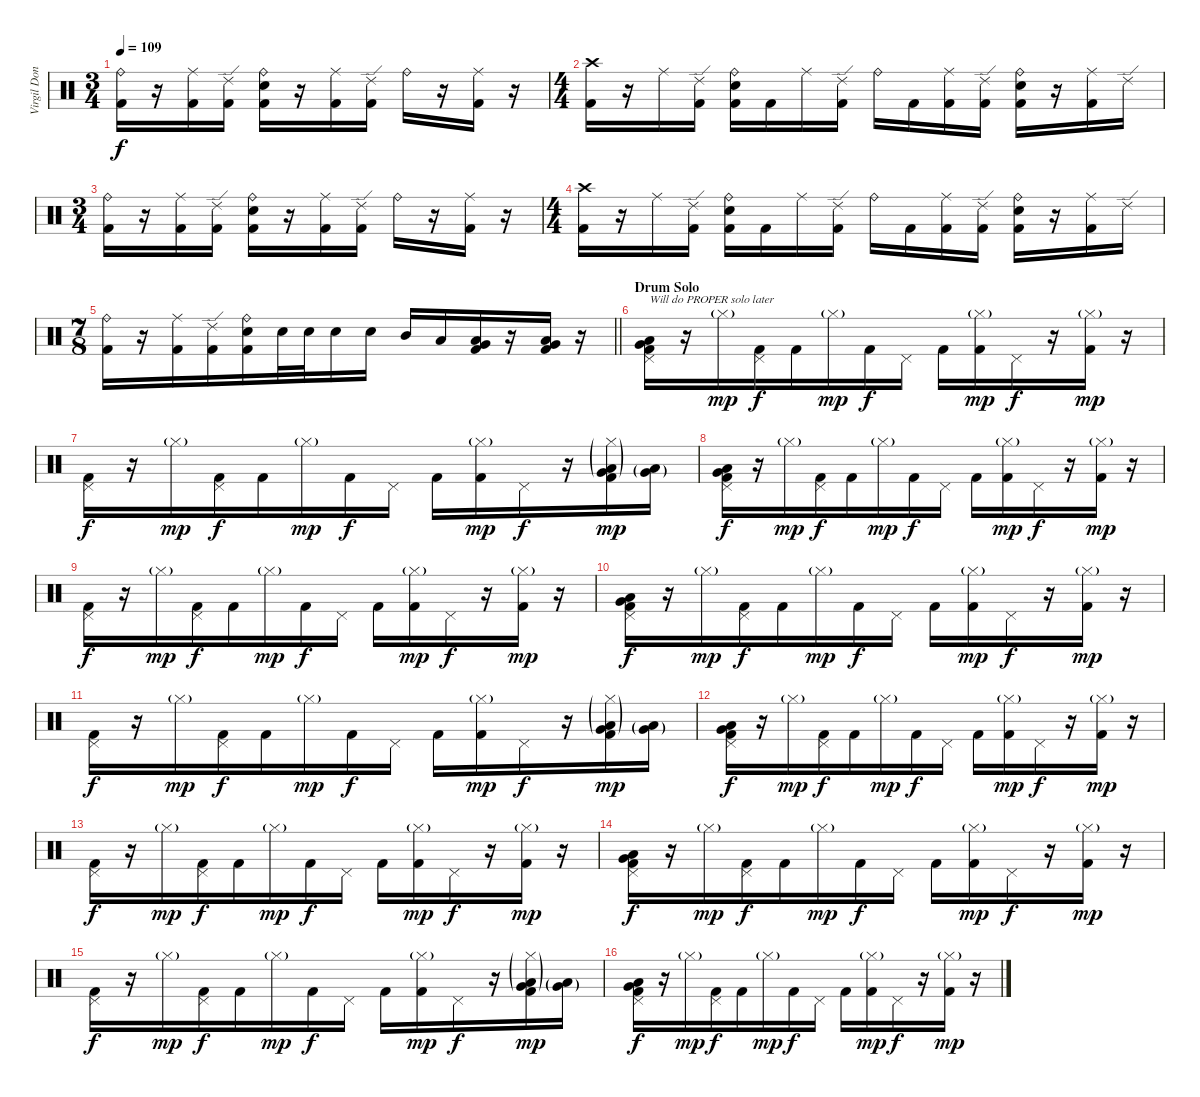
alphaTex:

\track ("Virgil Donati" "Virgil Don") {instrument percussion}
\staff {score}
\articulation defaults
\ts (3 4)
\tempo 109
\clef neutral
\ks c
("Ride (bell)" "Kick (hit) 2").16{dy f} r.16 ("Ride (middle)" "Kick (hit) 2").16 ("Ride (edge) 2" "Kick (hit) 2").16 ("Ride (bell)" "Electric Snare (hit)" "Kick (hit) 2").16 r.16 ("Ride (middle)" "Kick (hit) 2").16 ("Ride (edge) 2" "Kick (hit) 2").16 "Ride (bell)".16 r.16 ("Ride (middle)" "Kick (hit) 2").16 r.16 |
\ts (4 4)
("Crash high (hit)" "Kick (hit) 2").16 r.16 "Ride (middle)".16 ("Ride (edge) 2" "Kick (hit) 2").16 ("Ride (bell)" "Electric Snare (hit)" "Kick (hit) 2").16 "Kick (hit) 2".16 "Ride (middle)".16 ("Ride (edge) 2" "Kick (hit) 2").16 "Ride (bell)".16 "Kick (hit) 2".16 ("Ride (middle)" "Kick (hit) 2").16 ("Ride (edge) 2" "Kick (hit) 2").16 ("Ride (bell)" "Electric Snare (hit)" "Kick (hit) 2").16 r.16 ("Ride (middle)" "Kick (hit) 2").16 "Ride (edge) 2".16 |
\ts (3 4)
("Ride (bell)" "Kick (hit) 2").16 r.16 ("Ride (middle)" "Kick (hit) 2").16 ("Ride (edge) 2" "Kick (hit) 2").16 ("Ride (bell)" "Electric Snare (hit)" "Kick (hit) 2").16 r.16 ("Ride (middle)" "Kick (hit) 2").16 ("Ride (edge) 2" "Kick (hit) 2").16 "Ride (bell)".16 r.16 ("Ride (middle)" "Kick (hit) 2").16 r.16 |
\ts (4 4)
("Crash high (hit)" "Kick (hit) 2").16 r.16 "Ride (middle)".16 ("Ride (edge) 2" "Kick (hit) 2").16 ("Ride (bell)" "Electric Snare (hit)" "Kick (hit) 2").16 "Kick (hit) 2".16 "Ride (middle)".16 ("Ride (edge) 2" "Kick (hit) 2").16 "Ride (bell)".16 "Kick (hit) 2".16 ("Ride (middle)" "Kick (hit) 2").16 ("Ride (edge) 2" "Kick (hit) 2").16 ("Ride (bell)" "Electric Snare (hit)" "Kick (hit) 2").16 r.16 ("Ride (middle)" "Kick (hit) 2").16 "Ride (edge) 2".16 |
\ts (7 8)
\barLineRight lightlight
("Ride (bell)" "Kick (hit) 2").16 r.16 ("Ride (middle)" "Kick (hit) 2").16 ("Ride (edge) 2" "Kick (hit) 2").16 ("Ride (bell)" "Electric Snare (hit)" "Kick (hit) 2").16 "Electric Snare (hit)".32 "Electric Snare (hit)".32 "Electric Snare (hit)".16 "Electric Snare (hit)".16 "Mid Tom (hit)".16 "Low Tom (hit)".16 ("Very Low Tom (hit)" "Low Floor Tom (hit)" "Kick (hit) 2").16 r.16 ("Very Low Tom (hit)" "Low Floor Tom (hit)" "Kick (hit) 2").16 r.16 |
\section ("" "Drum Solo")
("Pedal Hi-Hat (hit)" "Very Low Tom (hit)" "Low Floor Tom (hit)" "Kick (hit) 2").16{txt "Will do PROPER solo later"} r.16 "Hi-Hat (closed)"{g}.16{dy mp} ("Pedal Hi-Hat (hit)" "Kick (hit) 2").16{dy f} "Kick (hit) 2".16 "Hi-Hat (closed)"{g}.16{dy mp} "Kick (hit) 2".16{dy f} "Pedal Hi-Hat (hit)".16 "Kick (hit) 2".16 ("Hi-Hat (closed)"{g} "Kick (hit) 2").16{dy mp} "Pedal Hi-Hat (hit)".16{dy f} r.16 ("Hi-Hat (closed)"{g} "Kick (hit) 2").16{dy mp} r.16 |
("Pedal Hi-Hat (hit)" "Kick (hit) 2").16{dy f} r.16 "Hi-Hat (closed)"{g}.16{dy mp} ("Pedal Hi-Hat (hit)" "Kick (hit) 2").16{dy f} "Kick (hit) 2".16 "Hi-Hat (closed)"{g}.16{dy mp} "Kick (hit) 2".16{dy f} "Pedal Hi-Hat (hit)".16 "Kick (hit) 2".16 ("Hi-Hat (closed)"{g} "Kick (hit) 2").16{dy mp} "Pedal Hi-Hat (hit)".16{dy f} r.16 ("Hi-Hat (closed)"{g} "Very Low Tom (hit)"{g} "Low Floor Tom (hit)"{g} "Kick (hit) 2").16{dy mp} ("Very Low Tom (hit)"{g} "Low Floor Tom (hit)"{g}).16 |
("Pedal Hi-Hat (hit)" "Very Low Tom (hit)" "Low Floor Tom (hit)" "Kick (hit) 2").16{dy f} r.16 "Hi-Hat (closed)"{g}.16{dy mp} ("Pedal Hi-Hat (hit)" "Kick (hit) 2").16{dy f} "Kick (hit) 2".16 "Hi-Hat (closed)"{g}.16{dy mp} "Kick (hit) 2".16{dy f} "Pedal Hi-Hat (hit)".16 "Kick (hit) 2".16 ("Hi-Hat (closed)"{g} "Kick (hit) 2").16{dy mp} "Pedal Hi-Hat (hit)".16{dy f} r.16 ("Hi-Hat (closed)"{g} "Kick (hit) 2").16{dy mp} r.16 |
("Pedal Hi-Hat (hit)" "Kick (hit) 2").16{dy f} r.16 "Hi-Hat (closed)"{g}.16{dy mp} ("Pedal Hi-Hat (hit)" "Kick (hit) 2").16{dy f} "Kick (hit) 2".16 "Hi-Hat (closed)"{g}.16{dy mp} "Kick (hit) 2".16{dy f} "Pedal Hi-Hat (hit)".16 "Kick (hit) 2".16 ("Hi-Hat (closed)"{g} "Kick (hit) 2").16{dy mp} "Pedal Hi-Hat (hit)".16{dy f} r.16 ("Hi-Hat (closed)"{g} "Kick (hit) 2").16{dy mp} r.16 |
("Pedal Hi-Hat (hit)" "Very Low Tom (hit)" "Low Floor Tom (hit)" "Kick (hit) 2").16{dy f} r.16 "Hi-Hat (closed)"{g}.16{dy mp} ("Pedal Hi-Hat (hit)" "Kick (hit) 2").16{dy f} "Kick (hit) 2".16 "Hi-Hat (closed)"{g}.16{dy mp} "Kick (hit) 2".16{dy f} "Pedal Hi-Hat (hit)".16 "Kick (hit) 2".16 ("Hi-Hat (closed)"{g} "Kick (hit) 2").16{dy mp} "Pedal Hi-Hat (hit)".16{dy f} r.16 ("Hi-Hat (closed)"{g} "Kick (hit) 2").16{dy mp} r.16 |
("Pedal Hi-Hat (hit)" "Kick (hit) 2").16{dy f} r.16 "Hi-Hat (closed)"{g}.16{dy mp} ("Pedal Hi-Hat (hit)" "Kick (hit) 2").16{dy f} "Kick (hit) 2".16 "Hi-Hat (closed)"{g}.16{dy mp} "Kick (hit) 2".16{dy f} "Pedal Hi-Hat (hit)".16 "Kick (hit) 2".16 ("Hi-Hat (closed)"{g} "Kick (hit) 2").16{dy mp} "Pedal Hi-Hat (hit)".16{dy f} r.16 ("Hi-Hat (closed)"{g} "Very Low Tom (hit)"{g} "Low Floor Tom (hit)"{g} "Kick (hit) 2").16{dy mp} ("Very Low Tom (hit)"{g} "Low Floor Tom (hit)"{g}).16 |
("Pedal Hi-Hat (hit)" "Very Low Tom (hit)" "Low Floor Tom (hit)" "Kick (hit) 2").16{dy f} r.16 "Hi-Hat (closed)"{g}.16{dy mp} ("Pedal Hi-Hat (hit)" "Kick (hit) 2").16{dy f} "Kick (hit) 2".16 "Hi-Hat (closed)"{g}.16{dy mp} "Kick (hit) 2".16{dy f} "Pedal Hi-Hat (hit)".16 "Kick (hit) 2".16 ("Hi-Hat (closed)"{g} "Kick (hit) 2").16{dy mp} "Pedal Hi-Hat (hit)".16{dy f} r.16 ("Hi-Hat (closed)"{g} "Kick (hit) 2").16{dy mp} r.16 |
("Pedal Hi-Hat (hit)" "Kick (hit) 2").16{dy f} r.16 "Hi-Hat (closed)"{g}.16{dy mp} ("Pedal Hi-Hat (hit)" "Kick (hit) 2").16{dy f} "Kick (hit) 2".16 "Hi-Hat (closed)"{g}.16{dy mp} "Kick (hit) 2".16{dy f} "Pedal Hi-Hat (hit)".16 "Kick (hit) 2".16 ("Hi-Hat (closed)"{g} "Kick (hit) 2").16{dy mp} "Pedal Hi-Hat (hit)".16{dy f} r.16 ("Hi-Hat (closed)"{g} "Kick (hit) 2").16{dy mp} r.16 |
("Pedal Hi-Hat (hit)" "Very Low Tom (hit)" "Low Floor Tom (hit)" "Kick (hit) 2").16{dy f} r.16 "Hi-Hat (closed)"{g}.16{dy mp} ("Pedal Hi-Hat (hit)" "Kick (hit) 2").16{dy f} "Kick (hit) 2".16 "Hi-Hat (closed)"{g}.16{dy mp} "Kick (hit) 2".16{dy f} "Pedal Hi-Hat (hit)".16 "Kick (hit) 2".16 ("Hi-Hat (closed)"{g} "Kick (hit) 2").16{dy mp} "Pedal Hi-Hat (hit)".16{dy f} r.16 ("Hi-Hat (closed)"{g} "Kick (hit) 2").16{dy mp} r.16 |
("Pedal Hi-Hat (hit)" "Kick (hit) 2").16{dy f} r.16 "Hi-Hat (closed)"{g}.16{dy mp} ("Pedal Hi-Hat (hit)" "Kick (hit) 2").16{dy f} "Kick (hit) 2".16 "Hi-Hat (closed)"{g}.16{dy mp} "Kick (hit) 2".16{dy f} "Pedal Hi-Hat (hit)".16 "Kick (hit) 2".16 ("Hi-Hat (closed)"{g} "Kick (hit) 2").16{dy mp} "Pedal Hi-Hat (hit)".16{dy f} r.16 ("Hi-Hat (closed)"{g} "Very Low Tom (hit)"{g} "Low Floor Tom (hit)"{g} "Kick (hit) 2").16{dy mp} ("Very Low Tom (hit)"{g} "Low Floor Tom (hit)"{g}).16 |
("Pedal Hi-Hat (hit)" "Very Low Tom (hit)" "Low Floor Tom (hit)" "Kick (hit) 2").16{dy f} r.16 "Hi-Hat (closed)"{g}.16{dy mp} ("Pedal Hi-Hat (hit)" "Kick (hit) 2").16{dy f} "Kick (hit) 2".16 "Hi-Hat (closed)"{g}.16{dy mp} "Kick (hit) 2".16{dy f} "Pedal Hi-Hat (hit)".16 "Kick (hit) 2".16 ("Hi-Hat (closed)"{g} "Kick (hit) 2").16{dy mp} "Pedal Hi-Hat (hit)".16{dy f} r.16 ("Hi-Hat (closed)"{g} "Kick (hit) 2").16{dy mp} r.16
